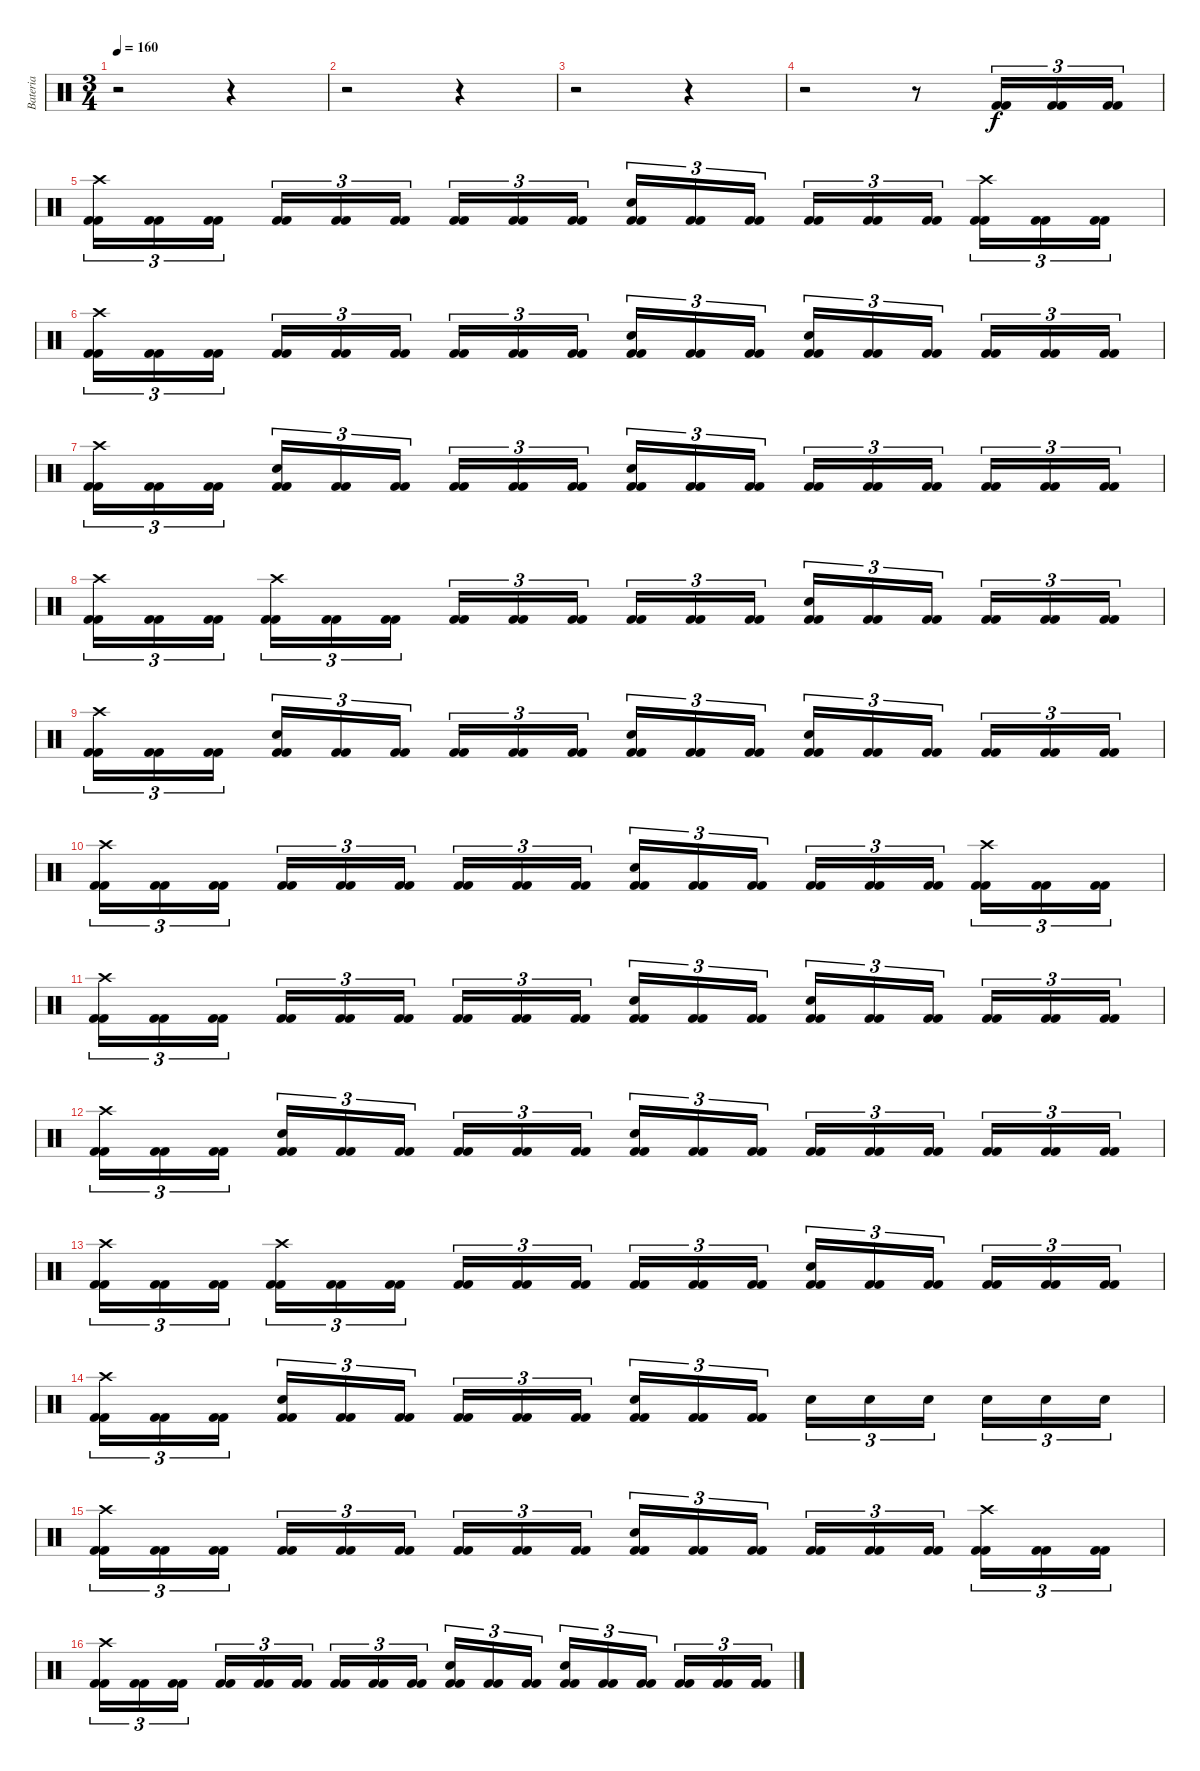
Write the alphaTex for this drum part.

\track ("Bateria" "Bateria") {instrument percussion}
\staff {score}
\articulation defaults
\ts (3 4)
\tempo 160
\clef neutral
\ks c
r.2{dy f} r.4 |
r.2 r.4 |
r.2 r.4 |
r.2 r.8 ("Kick (hit) 2" "Kick (hit) 2").16{tu (3 2)} ("Kick (hit) 2" "Kick (hit) 2").16{tu (3 2)} ("Kick (hit) 2" "Kick (hit) 2").16{tu (3 2)} |
("Kick (hit) 2" "Kick (hit) 2" "Crash high (hit)").16{tu (3 2)} ("Kick (hit) 2" "Kick (hit) 2").16{tu (3 2)} ("Kick (hit) 2" "Kick (hit) 2").16{tu (3 2)} ("Kick (hit) 2" "Kick (hit) 2").16{tu (3 2)} ("Kick (hit) 2" "Kick (hit) 2").16{tu (3 2)} ("Kick (hit) 2" "Kick (hit) 2").16{tu (3 2)} ("Kick (hit) 2" "Kick (hit) 2").16{tu (3 2)} ("Kick (hit) 2" "Kick (hit) 2").16{tu (3 2)} ("Kick (hit) 2" "Kick (hit) 2").16{tu (3 2)} ("Kick (hit) 2" "Kick (hit) 2" "Snare (hit) 2").16{tu (3 2)} ("Kick (hit) 2" "Kick (hit) 2").16{tu (3 2)} ("Kick (hit) 2" "Kick (hit) 2").16{tu (3 2)} ("Kick (hit) 2" "Kick (hit) 2").16{tu (3 2)} ("Kick (hit) 2" "Kick (hit) 2").16{tu (3 2)} ("Kick (hit) 2" "Kick (hit) 2").16{tu (3 2)} ("Kick (hit) 2" "Kick (hit) 2" "Crash high (hit)").16{tu (3 2)} ("Kick (hit) 2" "Kick (hit) 2").16{tu (3 2)} ("Kick (hit) 2" "Kick (hit) 2").16{tu (3 2)} |
("Kick (hit) 2" "Kick (hit) 2" "Crash high (hit)").16{tu (3 2)} ("Kick (hit) 2" "Kick (hit) 2").16{tu (3 2)} ("Kick (hit) 2" "Kick (hit) 2").16{tu (3 2)} ("Kick (hit) 2" "Kick (hit) 2").16{tu (3 2)} ("Kick (hit) 2" "Kick (hit) 2").16{tu (3 2)} ("Kick (hit) 2" "Kick (hit) 2").16{tu (3 2)} ("Kick (hit) 2" "Kick (hit) 2").16{tu (3 2)} ("Kick (hit) 2" "Kick (hit) 2").16{tu (3 2)} ("Kick (hit) 2" "Kick (hit) 2").16{tu (3 2)} ("Kick (hit) 2" "Kick (hit) 2" "Snare (hit) 2").16{tu (3 2)} ("Kick (hit) 2" "Kick (hit) 2").16{tu (3 2)} ("Kick (hit) 2" "Kick (hit) 2").16{tu (3 2)} ("Kick (hit) 2" "Kick (hit) 2" "Snare (hit) 2").16{tu (3 2)} ("Kick (hit) 2" "Kick (hit) 2").16{tu (3 2)} ("Kick (hit) 2" "Kick (hit) 2").16{tu (3 2)} ("Kick (hit) 2" "Kick (hit) 2").16{tu (3 2)} ("Kick (hit) 2" "Kick (hit) 2").16{tu (3 2)} ("Kick (hit) 2" "Kick (hit) 2").16{tu (3 2)} |
("Kick (hit) 2" "Kick (hit) 2" "Crash high (hit)").16{tu (3 2)} ("Kick (hit) 2" "Kick (hit) 2").16{tu (3 2)} ("Kick (hit) 2" "Kick (hit) 2").16{tu (3 2)} ("Kick (hit) 2" "Kick (hit) 2" "Snare (hit) 2").16{tu (3 2)} ("Kick (hit) 2" "Kick (hit) 2").16{tu (3 2)} ("Kick (hit) 2" "Kick (hit) 2").16{tu (3 2)} ("Kick (hit) 2" "Kick (hit) 2").16{tu (3 2)} ("Kick (hit) 2" "Kick (hit) 2").16{tu (3 2)} ("Kick (hit) 2" "Kick (hit) 2").16{tu (3 2)} ("Kick (hit) 2" "Kick (hit) 2" "Snare (hit) 2").16{tu (3 2)} ("Kick (hit) 2" "Kick (hit) 2").16{tu (3 2)} ("Kick (hit) 2" "Kick (hit) 2").16{tu (3 2)} ("Kick (hit) 2" "Kick (hit) 2").16{tu (3 2)} ("Kick (hit) 2" "Kick (hit) 2").16{tu (3 2)} ("Kick (hit) 2" "Kick (hit) 2").16{tu (3 2)} ("Kick (hit) 2" "Kick (hit) 2").16{tu (3 2)} ("Kick (hit) 2" "Kick (hit) 2").16{tu (3 2)} ("Kick (hit) 2" "Kick (hit) 2").16{tu (3 2)} |
("Kick (hit) 2" "Kick (hit) 2" "Crash high (hit)").16{tu (3 2)} ("Kick (hit) 2" "Kick (hit) 2").16{tu (3 2)} ("Kick (hit) 2" "Kick (hit) 2").16{tu (3 2)} ("Kick (hit) 2" "Kick (hit) 2" "Crash high (hit)").16{tu (3 2)} ("Kick (hit) 2" "Kick (hit) 2").16{tu (3 2)} ("Kick (hit) 2" "Kick (hit) 2").16{tu (3 2)} ("Kick (hit) 2" "Kick (hit) 2").16{tu (3 2)} ("Kick (hit) 2" "Kick (hit) 2").16{tu (3 2)} ("Kick (hit) 2" "Kick (hit) 2").16{tu (3 2)} ("Kick (hit) 2" "Kick (hit) 2").16{tu (3 2)} ("Kick (hit) 2" "Kick (hit) 2").16{tu (3 2)} ("Kick (hit) 2" "Kick (hit) 2").16{tu (3 2)} ("Kick (hit) 2" "Kick (hit) 2" "Snare (hit) 2").16{tu (3 2)} ("Kick (hit) 2" "Kick (hit) 2").16{tu (3 2)} ("Kick (hit) 2" "Kick (hit) 2").16{tu (3 2)} ("Kick (hit) 2" "Kick (hit) 2").16{tu (3 2)} ("Kick (hit) 2" "Kick (hit) 2").16{tu (3 2)} ("Kick (hit) 2" "Kick (hit) 2").16{tu (3 2)} |
("Kick (hit) 2" "Kick (hit) 2" "Crash high (hit)").16{tu (3 2)} ("Kick (hit) 2" "Kick (hit) 2").16{tu (3 2)} ("Kick (hit) 2" "Kick (hit) 2").16{tu (3 2)} ("Kick (hit) 2" "Kick (hit) 2" "Snare (hit) 2").16{tu (3 2)} ("Kick (hit) 2" "Kick (hit) 2").16{tu (3 2)} ("Kick (hit) 2" "Kick (hit) 2").16{tu (3 2)} ("Kick (hit) 2" "Kick (hit) 2").16{tu (3 2)} ("Kick (hit) 2" "Kick (hit) 2").16{tu (3 2)} ("Kick (hit) 2" "Kick (hit) 2").16{tu (3 2)} ("Kick (hit) 2" "Kick (hit) 2" "Snare (hit) 2").16{tu (3 2)} ("Kick (hit) 2" "Kick (hit) 2").16{tu (3 2)} ("Kick (hit) 2" "Kick (hit) 2").16{tu (3 2)} ("Kick (hit) 2" "Kick (hit) 2" "Snare (hit) 2").16{tu (3 2)} ("Kick (hit) 2" "Kick (hit) 2").16{tu (3 2)} ("Kick (hit) 2" "Kick (hit) 2").16{tu (3 2)} ("Kick (hit) 2" "Kick (hit) 2").16{tu (3 2)} ("Kick (hit) 2" "Kick (hit) 2").16{tu (3 2)} ("Kick (hit) 2" "Kick (hit) 2").16{tu (3 2)} |
("Kick (hit) 2" "Kick (hit) 2" "Crash high (hit)").16{tu (3 2)} ("Kick (hit) 2" "Kick (hit) 2").16{tu (3 2)} ("Kick (hit) 2" "Kick (hit) 2").16{tu (3 2)} ("Kick (hit) 2" "Kick (hit) 2").16{tu (3 2)} ("Kick (hit) 2" "Kick (hit) 2").16{tu (3 2)} ("Kick (hit) 2" "Kick (hit) 2").16{tu (3 2)} ("Kick (hit) 2" "Kick (hit) 2").16{tu (3 2)} ("Kick (hit) 2" "Kick (hit) 2").16{tu (3 2)} ("Kick (hit) 2" "Kick (hit) 2").16{tu (3 2)} ("Kick (hit) 2" "Kick (hit) 2" "Snare (hit) 2").16{tu (3 2)} ("Kick (hit) 2" "Kick (hit) 2").16{tu (3 2)} ("Kick (hit) 2" "Kick (hit) 2").16{tu (3 2)} ("Kick (hit) 2" "Kick (hit) 2").16{tu (3 2)} ("Kick (hit) 2" "Kick (hit) 2").16{tu (3 2)} ("Kick (hit) 2" "Kick (hit) 2").16{tu (3 2)} ("Kick (hit) 2" "Kick (hit) 2" "Crash high (hit)").16{tu (3 2)} ("Kick (hit) 2" "Kick (hit) 2").16{tu (3 2)} ("Kick (hit) 2" "Kick (hit) 2").16{tu (3 2)} |
("Kick (hit) 2" "Kick (hit) 2" "Crash high (hit)").16{tu (3 2)} ("Kick (hit) 2" "Kick (hit) 2").16{tu (3 2)} ("Kick (hit) 2" "Kick (hit) 2").16{tu (3 2)} ("Kick (hit) 2" "Kick (hit) 2").16{tu (3 2)} ("Kick (hit) 2" "Kick (hit) 2").16{tu (3 2)} ("Kick (hit) 2" "Kick (hit) 2").16{tu (3 2)} ("Kick (hit) 2" "Kick (hit) 2").16{tu (3 2)} ("Kick (hit) 2" "Kick (hit) 2").16{tu (3 2)} ("Kick (hit) 2" "Kick (hit) 2").16{tu (3 2)} ("Kick (hit) 2" "Kick (hit) 2" "Snare (hit) 2").16{tu (3 2)} ("Kick (hit) 2" "Kick (hit) 2").16{tu (3 2)} ("Kick (hit) 2" "Kick (hit) 2").16{tu (3 2)} ("Kick (hit) 2" "Kick (hit) 2" "Snare (hit) 2").16{tu (3 2)} ("Kick (hit) 2" "Kick (hit) 2").16{tu (3 2)} ("Kick (hit) 2" "Kick (hit) 2").16{tu (3 2)} ("Kick (hit) 2" "Kick (hit) 2").16{tu (3 2)} ("Kick (hit) 2" "Kick (hit) 2").16{tu (3 2)} ("Kick (hit) 2" "Kick (hit) 2").16{tu (3 2)} |
("Kick (hit) 2" "Kick (hit) 2" "Crash high (hit)").16{tu (3 2)} ("Kick (hit) 2" "Kick (hit) 2").16{tu (3 2)} ("Kick (hit) 2" "Kick (hit) 2").16{tu (3 2)} ("Kick (hit) 2" "Kick (hit) 2" "Snare (hit) 2").16{tu (3 2)} ("Kick (hit) 2" "Kick (hit) 2").16{tu (3 2)} ("Kick (hit) 2" "Kick (hit) 2").16{tu (3 2)} ("Kick (hit) 2" "Kick (hit) 2").16{tu (3 2)} ("Kick (hit) 2" "Kick (hit) 2").16{tu (3 2)} ("Kick (hit) 2" "Kick (hit) 2").16{tu (3 2)} ("Kick (hit) 2" "Kick (hit) 2" "Snare (hit) 2").16{tu (3 2)} ("Kick (hit) 2" "Kick (hit) 2").16{tu (3 2)} ("Kick (hit) 2" "Kick (hit) 2").16{tu (3 2)} ("Kick (hit) 2" "Kick (hit) 2").16{tu (3 2)} ("Kick (hit) 2" "Kick (hit) 2").16{tu (3 2)} ("Kick (hit) 2" "Kick (hit) 2").16{tu (3 2)} ("Kick (hit) 2" "Kick (hit) 2").16{tu (3 2)} ("Kick (hit) 2" "Kick (hit) 2").16{tu (3 2)} ("Kick (hit) 2" "Kick (hit) 2").16{tu (3 2)} |
("Kick (hit) 2" "Kick (hit) 2" "Crash high (hit)").16{tu (3 2)} ("Kick (hit) 2" "Kick (hit) 2").16{tu (3 2)} ("Kick (hit) 2" "Kick (hit) 2").16{tu (3 2)} ("Kick (hit) 2" "Kick (hit) 2" "Crash high (hit)").16{tu (3 2)} ("Kick (hit) 2" "Kick (hit) 2").16{tu (3 2)} ("Kick (hit) 2" "Kick (hit) 2").16{tu (3 2)} ("Kick (hit) 2" "Kick (hit) 2").16{tu (3 2)} ("Kick (hit) 2" "Kick (hit) 2").16{tu (3 2)} ("Kick (hit) 2" "Kick (hit) 2").16{tu (3 2)} ("Kick (hit) 2" "Kick (hit) 2").16{tu (3 2)} ("Kick (hit) 2" "Kick (hit) 2").16{tu (3 2)} ("Kick (hit) 2" "Kick (hit) 2").16{tu (3 2)} ("Kick (hit) 2" "Kick (hit) 2" "Snare (hit) 2").16{tu (3 2)} ("Kick (hit) 2" "Kick (hit) 2").16{tu (3 2)} ("Kick (hit) 2" "Kick (hit) 2").16{tu (3 2)} ("Kick (hit) 2" "Kick (hit) 2").16{tu (3 2)} ("Kick (hit) 2" "Kick (hit) 2").16{tu (3 2)} ("Kick (hit) 2" "Kick (hit) 2").16{tu (3 2)} |
("Kick (hit) 2" "Kick (hit) 2" "Crash high (hit)").16{tu (3 2)} ("Kick (hit) 2" "Kick (hit) 2").16{tu (3 2)} ("Kick (hit) 2" "Kick (hit) 2").16{tu (3 2)} ("Kick (hit) 2" "Kick (hit) 2" "Snare (hit) 2").16{tu (3 2)} ("Kick (hit) 2" "Kick (hit) 2").16{tu (3 2)} ("Kick (hit) 2" "Kick (hit) 2").16{tu (3 2)} ("Kick (hit) 2" "Kick (hit) 2").16{tu (3 2)} ("Kick (hit) 2" "Kick (hit) 2").16{tu (3 2)} ("Kick (hit) 2" "Kick (hit) 2").16{tu (3 2)} ("Kick (hit) 2" "Kick (hit) 2" "Snare (hit) 2").16{tu (3 2)} ("Kick (hit) 2" "Kick (hit) 2").16{tu (3 2)} ("Kick (hit) 2" "Kick (hit) 2").16{tu (3 2)} "Snare (hit) 2".16{tu (3 2)} "Snare (hit) 2".16{tu (3 2)} "Snare (hit) 2".16{tu (3 2)} "Snare (hit) 2".16{tu (3 2)} "Snare (hit) 2".16{tu (3 2)} "Snare (hit) 2".16{tu (3 2)} |
("Kick (hit) 2" "Kick (hit) 2" "Crash high (hit)").16{tu (3 2)} ("Kick (hit) 2" "Kick (hit) 2").16{tu (3 2)} ("Kick (hit) 2" "Kick (hit) 2").16{tu (3 2)} ("Kick (hit) 2" "Kick (hit) 2").16{tu (3 2)} ("Kick (hit) 2" "Kick (hit) 2").16{tu (3 2)} ("Kick (hit) 2" "Kick (hit) 2").16{tu (3 2)} ("Kick (hit) 2" "Kick (hit) 2").16{tu (3 2)} ("Kick (hit) 2" "Kick (hit) 2").16{tu (3 2)} ("Kick (hit) 2" "Kick (hit) 2").16{tu (3 2)} ("Kick (hit) 2" "Kick (hit) 2" "Snare (hit) 2").16{tu (3 2)} ("Kick (hit) 2" "Kick (hit) 2").16{tu (3 2)} ("Kick (hit) 2" "Kick (hit) 2").16{tu (3 2)} ("Kick (hit) 2" "Kick (hit) 2").16{tu (3 2)} ("Kick (hit) 2" "Kick (hit) 2").16{tu (3 2)} ("Kick (hit) 2" "Kick (hit) 2").16{tu (3 2)} ("Kick (hit) 2" "Kick (hit) 2" "Crash high (hit)").16{tu (3 2)} ("Kick (hit) 2" "Kick (hit) 2").16{tu (3 2)} ("Kick (hit) 2" "Kick (hit) 2").16{tu (3 2)} |
("Kick (hit) 2" "Kick (hit) 2" "Crash high (hit)").16{tu (3 2)} ("Kick (hit) 2" "Kick (hit) 2").16{tu (3 2)} ("Kick (hit) 2" "Kick (hit) 2").16{tu (3 2)} ("Kick (hit) 2" "Kick (hit) 2").16{tu (3 2)} ("Kick (hit) 2" "Kick (hit) 2").16{tu (3 2)} ("Kick (hit) 2" "Kick (hit) 2").16{tu (3 2)} ("Kick (hit) 2" "Kick (hit) 2").16{tu (3 2)} ("Kick (hit) 2" "Kick (hit) 2").16{tu (3 2)} ("Kick (hit) 2" "Kick (hit) 2").16{tu (3 2)} ("Kick (hit) 2" "Kick (hit) 2" "Snare (hit) 2").16{tu (3 2)} ("Kick (hit) 2" "Kick (hit) 2").16{tu (3 2)} ("Kick (hit) 2" "Kick (hit) 2").16{tu (3 2)} ("Kick (hit) 2" "Kick (hit) 2" "Snare (hit) 2").16{tu (3 2)} ("Kick (hit) 2" "Kick (hit) 2").16{tu (3 2)} ("Kick (hit) 2" "Kick (hit) 2").16{tu (3 2)} ("Kick (hit) 2" "Kick (hit) 2").16{tu (3 2)} ("Kick (hit) 2" "Kick (hit) 2").16{tu (3 2)} ("Kick (hit) 2" "Kick (hit) 2").16{tu (3 2)}
